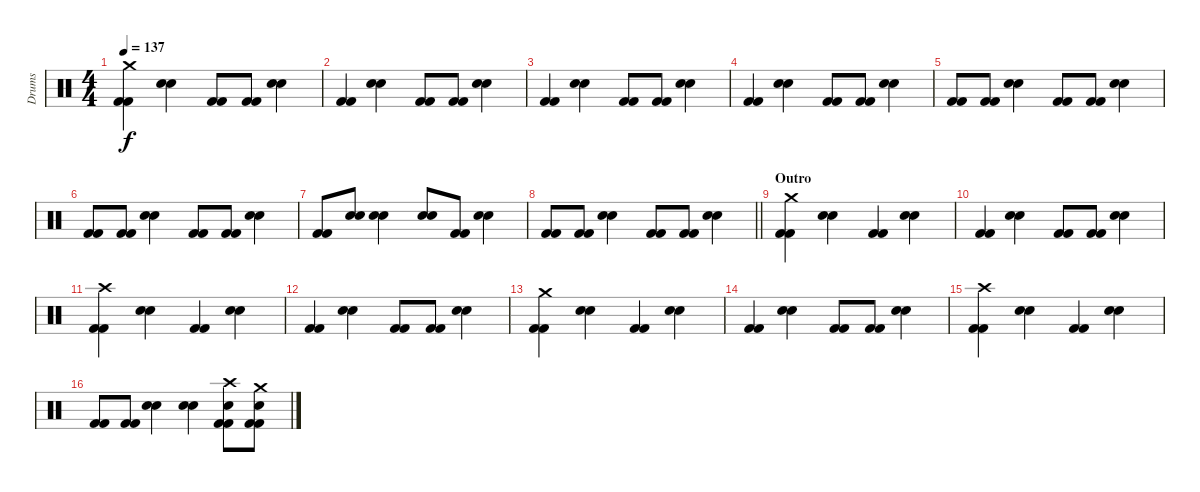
\track ("Drums" "Drums") {instrument percussion}
\staff {score}
\articulation defaults
\ts (4 4)
\tempo 137
\clef neutral
\ks c
("Kick (hit) 2" "Kick (hit) 2" "Crash medium (hit)").4{dy f} ("Electric Snare (hit)" "Electric Snare (hit)").4 ("Kick (hit) 2" "Kick (hit) 2").8 ("Kick (hit) 2" "Kick (hit) 2").8 ("Electric Snare (hit)" "Electric Snare (hit)").4 |
("Kick (hit) 2" "Kick (hit) 2").4 ("Electric Snare (hit)" "Electric Snare (hit)").4 ("Kick (hit) 2" "Kick (hit) 2").8 ("Kick (hit) 2" "Kick (hit) 2").8 ("Electric Snare (hit)" "Electric Snare (hit)").4 |
("Kick (hit) 2" "Kick (hit) 2").4 ("Electric Snare (hit)" "Electric Snare (hit)").4 ("Kick (hit) 2" "Kick (hit) 2").8 ("Kick (hit) 2" "Kick (hit) 2").8 ("Electric Snare (hit)" "Electric Snare (hit)").4 |
("Kick (hit) 2" "Kick (hit) 2").4 ("Electric Snare (hit)" "Electric Snare (hit)").4 ("Kick (hit) 2" "Kick (hit) 2").8 ("Kick (hit) 2" "Kick (hit) 2").8 ("Electric Snare (hit)" "Electric Snare (hit)").4 |
("Kick (hit) 2" "Kick (hit) 2").8 ("Kick (hit) 2" "Kick (hit) 2").8 ("Electric Snare (hit)" "Electric Snare (hit)").4 ("Kick (hit) 2" "Kick (hit) 2").8 ("Kick (hit) 2" "Kick (hit) 2").8 ("Electric Snare (hit)" "Electric Snare (hit)").4 |
("Kick (hit) 2" "Kick (hit) 2").8 ("Kick (hit) 2" "Kick (hit) 2").8 ("Electric Snare (hit)" "Electric Snare (hit)").4 ("Kick (hit) 2" "Kick (hit) 2").8 ("Kick (hit) 2" "Kick (hit) 2").8 ("Electric Snare (hit)" "Electric Snare (hit)").4 |
("Kick (hit) 2" "Kick (hit) 2").8 ("Electric Snare (hit)" "Electric Snare (hit)").8 ("Electric Snare (hit)" "Electric Snare (hit)").4 ("Electric Snare (hit)" "Electric Snare (hit)").8 ("Kick (hit) 2" "Kick (hit) 2").8 ("Electric Snare (hit)" "Electric Snare (hit)").4 |
\barLineRight lightlight
("Kick (hit) 2" "Kick (hit) 2").8 ("Kick (hit) 2" "Kick (hit) 2").8 ("Electric Snare (hit)" "Electric Snare (hit)").4 ("Kick (hit) 2" "Kick (hit) 2").8 ("Kick (hit) 2" "Kick (hit) 2").8 ("Electric Snare (hit)" "Electric Snare (hit)").4 |
\section ("" "Outro")
("Kick (hit) 2" "Kick (hit) 2" "Crash medium (hit)").4 ("Electric Snare (hit)" "Electric Snare (hit)").4 ("Kick (hit) 2" "Kick (hit) 2").4 ("Electric Snare (hit)" "Electric Snare (hit)").4 |
("Kick (hit) 2" "Kick (hit) 2").4 ("Electric Snare (hit)" "Electric Snare (hit)").4 ("Kick (hit) 2" "Kick (hit) 2").8 ("Kick (hit) 2" "Kick (hit) 2").8 ("Electric Snare (hit)" "Electric Snare (hit)").4 |
("Kick (hit) 2" "Kick (hit) 2" "Crash high (hit)").4 ("Electric Snare (hit)" "Electric Snare (hit)").4 ("Kick (hit) 2" "Kick (hit) 2").4 ("Electric Snare (hit)" "Electric Snare (hit)").4 |
("Kick (hit) 2" "Kick (hit) 2").4 ("Electric Snare (hit)" "Electric Snare (hit)").4 ("Kick (hit) 2" "Kick (hit) 2").8 ("Kick (hit) 2" "Kick (hit) 2").8 ("Electric Snare (hit)" "Electric Snare (hit)").4 |
("Kick (hit) 2" "Kick (hit) 2" "Crash medium (hit)").4 ("Electric Snare (hit)" "Electric Snare (hit)").4 ("Kick (hit) 2" "Kick (hit) 2").4 ("Electric Snare (hit)" "Electric Snare (hit)").4 |
("Kick (hit) 2" "Kick (hit) 2").4 ("Electric Snare (hit)" "Electric Snare (hit)").4 ("Kick (hit) 2" "Kick (hit) 2").8 ("Kick (hit) 2" "Kick (hit) 2").8 ("Electric Snare (hit)" "Electric Snare (hit)").4 |
("Kick (hit) 2" "Kick (hit) 2" "Crash high (hit)").4 ("Electric Snare (hit)" "Electric Snare (hit)").4 ("Kick (hit) 2" "Kick (hit) 2").4 ("Electric Snare (hit)" "Electric Snare (hit)").4 |
("Kick (hit) 2" "Kick (hit) 2").8 ("Kick (hit) 2" "Kick (hit) 2").8 ("Electric Snare (hit)" "Electric Snare (hit)").4 ("Electric Snare (hit)" "Electric Snare (hit)").4 ("Kick (hit) 2" "Kick (hit) 2" "Electric Snare (hit)" "Crash high (hit)").8 ("Kick (hit) 2" "Kick (hit) 2" "Electric Snare (hit)" "Crash medium (hit)").8
